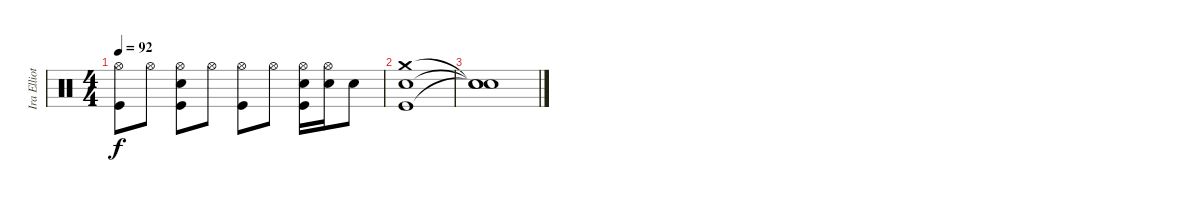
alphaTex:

\track ("Ira Elliot" "Ira Elliot") {instrument percussion}
\staff {score}
\articulation defaults
\ts (4 4)
\tempo 92
\clef neutral
\ks c
("Hi-Hat (open)" "Kick (hit)").8{dy f} "Hi-Hat (open)".8 ("Snare (hit) 2" "Hi-Hat (open)" "Kick (hit)").8 "Hi-Hat (open)".8 ("Hi-Hat (open)" "Kick (hit)").8 "Hi-Hat (open)".8 ("Snare (hit) 2" "Hi-Hat (open)" "Kick (hit)").16 ("Snare (hit) 2" "Hi-Hat (open)").16 "Snare (hit) 2".8 |
("Crash medium (hit)" "Snare (hit) 2" "Kick (hit)").1 |
("Snare (hit)"{t} "Snare (hit)"{t} "Snare (hit)"{t}).1
